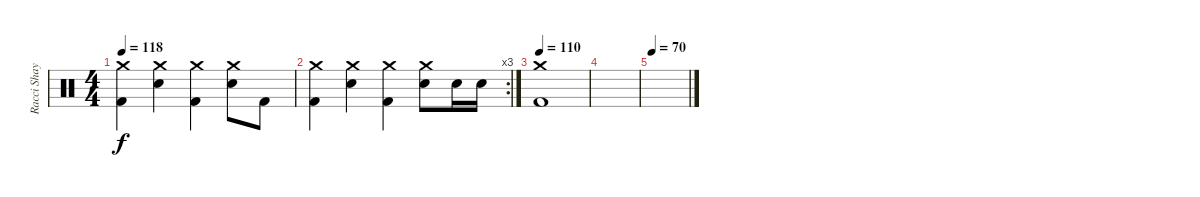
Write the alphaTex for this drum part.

\track ("Racci Shay" "Racci Shay") {instrument percussion}
\staff {score}
\articulation defaults
\ts (4 4)
\tempo 118
\clef neutral
\ks c
("Crash medium (hit)" "Kick (hit) 2").4{dy f} ("Crash medium (hit)" "Electric Snare (hit)").4 ("Crash medium (hit)" "Kick (hit) 2").4 ("Crash medium (hit)" "Electric Snare (hit)").8 "Kick (hit) 2".8 |
\rc 3
("Crash medium (hit)" "Kick (hit) 2").4 ("Crash medium (hit)" "Electric Snare (hit)").4 ("Crash medium (hit)" "Kick (hit) 2").4 ("Crash medium (hit)" "Electric Snare (hit)").8 "Electric Snare (hit)".16 "Electric Snare (hit)".16 |
\tempo 110
("Crash medium (hit)" "Kick (hit) 2").1 |
|
\tempo 70
